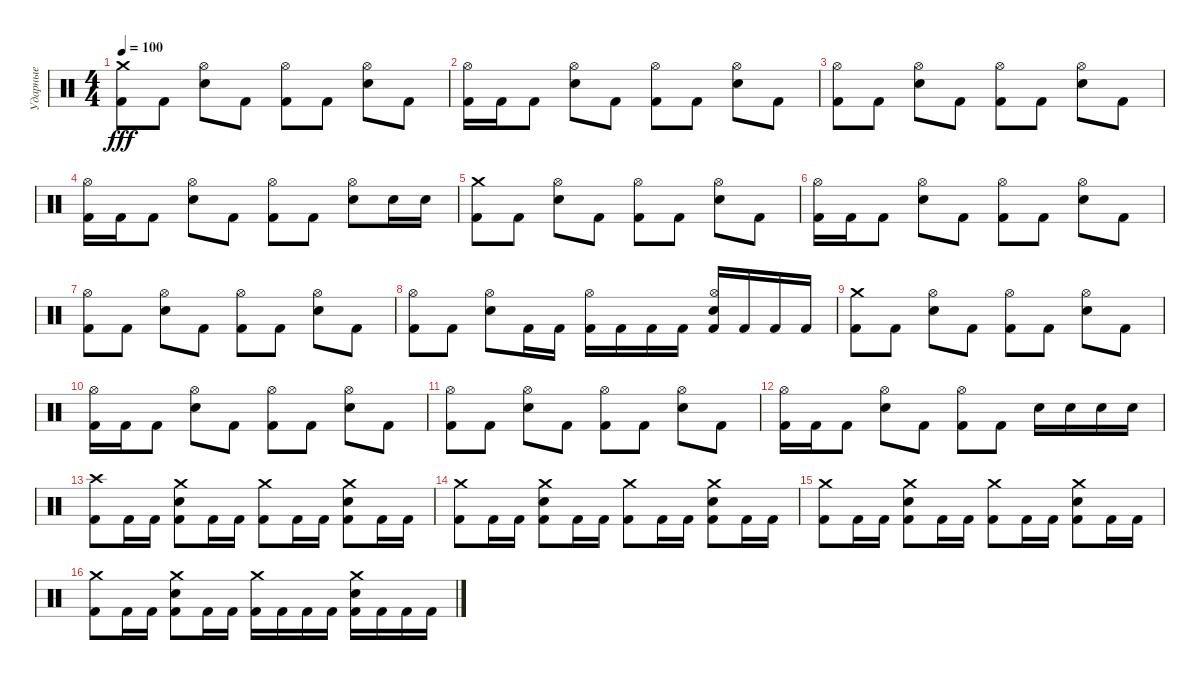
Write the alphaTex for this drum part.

\track ("Ударные" "Ударные") {instrument percussion}
\staff {score}
\articulation defaults
\ts (4 4)
\tempo 100
\clef neutral
\ks c
("Crash medium (hit)" "Kick (hit) 2").8{dy fff} "Kick (hit) 2".8 ("Hi-Hat (open)" "Electric Snare (hit)").8 "Kick (hit) 2".8 ("Hi-Hat (open)" "Kick (hit) 2").8 "Kick (hit) 2".8 ("Hi-Hat (open)" "Electric Snare (hit)").8 "Kick (hit) 2".8 |
("Hi-Hat (open)" "Kick (hit) 2").16 "Kick (hit) 2".16 "Kick (hit) 2".8 ("Hi-Hat (open)" "Electric Snare (hit)").8 "Kick (hit) 2".8 ("Hi-Hat (open)" "Kick (hit) 2").8 "Kick (hit) 2".8 ("Hi-Hat (open)" "Electric Snare (hit)").8 "Kick (hit) 2".8 |
("Hi-Hat (open)" "Kick (hit) 2").8 "Kick (hit) 2".8 ("Hi-Hat (open)" "Electric Snare (hit)").8 "Kick (hit) 2".8 ("Hi-Hat (open)" "Kick (hit) 2").8 "Kick (hit) 2".8 ("Hi-Hat (open)" "Electric Snare (hit)").8 "Kick (hit) 2".8 |
("Hi-Hat (open)" "Kick (hit) 2").16 "Kick (hit) 2".16 "Kick (hit) 2".8 ("Hi-Hat (open)" "Electric Snare (hit)").8 "Kick (hit) 2".8 ("Hi-Hat (open)" "Kick (hit) 2").8 "Kick (hit) 2".8 ("Hi-Hat (open)" "Electric Snare (hit)").8 "Electric Snare (hit)".16 "Electric Snare (hit)".16 |
("Crash medium (hit)" "Kick (hit) 2").8 "Kick (hit) 2".8 ("Hi-Hat (open)" "Electric Snare (hit)").8 "Kick (hit) 2".8 ("Hi-Hat (open)" "Kick (hit) 2").8 "Kick (hit) 2".8 ("Hi-Hat (open)" "Electric Snare (hit)").8 "Kick (hit) 2".8 |
("Hi-Hat (open)" "Kick (hit) 2").16 "Kick (hit) 2".16 "Kick (hit) 2".8 ("Hi-Hat (open)" "Electric Snare (hit)").8 "Kick (hit) 2".8 ("Hi-Hat (open)" "Kick (hit) 2").8 "Kick (hit) 2".8 ("Hi-Hat (open)" "Electric Snare (hit)").8 "Kick (hit) 2".8 |
("Hi-Hat (open)" "Kick (hit) 2").8 "Kick (hit) 2".8 ("Hi-Hat (open)" "Electric Snare (hit)").8 "Kick (hit) 2".8 ("Hi-Hat (open)" "Kick (hit) 2").8 "Kick (hit) 2".8 ("Hi-Hat (open)" "Electric Snare (hit)").8 "Kick (hit) 2".8 |
("Hi-Hat (open)" "Kick (hit) 2").8 "Kick (hit) 2".8 ("Hi-Hat (open)" "Electric Snare (hit)").8 "Kick (hit) 2".16 "Kick (hit) 2".16 ("Hi-Hat (open)" "Kick (hit) 2").16 "Kick (hit) 2".16 "Kick (hit) 2".16 "Kick (hit) 2".16 ("Hi-Hat (open)" "Electric Snare (hit)" "Kick (hit) 2").16 "Kick (hit) 2".16 "Kick (hit) 2".16 "Kick (hit) 2".16 |
("Crash medium (hit)" "Kick (hit) 2").8 "Kick (hit) 2".8 ("Hi-Hat (open)" "Electric Snare (hit)").8 "Kick (hit) 2".8 ("Hi-Hat (open)" "Kick (hit) 2").8 "Kick (hit) 2".8 ("Hi-Hat (open)" "Electric Snare (hit)").8 "Kick (hit) 2".8 |
("Hi-Hat (open)" "Kick (hit) 2").16 "Kick (hit) 2".16 "Kick (hit) 2".8 ("Hi-Hat (open)" "Electric Snare (hit)").8 "Kick (hit) 2".8 ("Hi-Hat (open)" "Kick (hit) 2").8 "Kick (hit) 2".8 ("Hi-Hat (open)" "Electric Snare (hit)").8 "Kick (hit) 2".8 |
("Hi-Hat (open)" "Kick (hit) 2").8 "Kick (hit) 2".8 ("Hi-Hat (open)" "Electric Snare (hit)").8 "Kick (hit) 2".8 ("Hi-Hat (open)" "Kick (hit) 2").8 "Kick (hit) 2".8 ("Hi-Hat (open)" "Electric Snare (hit)").8 "Kick (hit) 2".8 |
("Hi-Hat (open)" "Kick (hit) 2").16 "Kick (hit) 2".16 "Kick (hit) 2".8 ("Hi-Hat (open)" "Electric Snare (hit)").8 "Kick (hit) 2".8 ("Hi-Hat (open)" "Kick (hit) 2").8 "Kick (hit) 2".8 "Electric Snare (hit)".16 "Electric Snare (hit)".16 "Electric Snare (hit)".16 "Electric Snare (hit)".16 |
("Crash high (hit)" "Kick (hit) 2").8 "Kick (hit) 2".16 "Kick (hit) 2".16 ("Crash medium (hit)" "Electric Snare (hit)" "Kick (hit) 2").8 "Kick (hit) 2".16 "Kick (hit) 2".16 ("Crash medium (hit)" "Kick (hit) 2").8 "Kick (hit) 2".16 "Kick (hit) 2".16 ("Crash medium (hit)" "Electric Snare (hit)" "Kick (hit) 2").8 "Kick (hit) 2".16 "Kick (hit) 2".16 |
("Crash medium (hit)" "Kick (hit) 2").8 "Kick (hit) 2".16 "Kick (hit) 2".16 ("Crash medium (hit)" "Electric Snare (hit)" "Kick (hit) 2").8 "Kick (hit) 2".16 "Kick (hit) 2".16 ("Crash medium (hit)" "Kick (hit) 2").8 "Kick (hit) 2".16 "Kick (hit) 2".16 ("Crash medium (hit)" "Electric Snare (hit)" "Kick (hit) 2").8 "Kick (hit) 2".16 "Kick (hit) 2".16 |
("Crash medium (hit)" "Kick (hit) 2").8 "Kick (hit) 2".16 "Kick (hit) 2".16 ("Crash medium (hit)" "Electric Snare (hit)" "Kick (hit) 2").8 "Kick (hit) 2".16 "Kick (hit) 2".16 ("Crash medium (hit)" "Kick (hit) 2").8 "Kick (hit) 2".16 "Kick (hit) 2".16 ("Crash medium (hit)" "Electric Snare (hit)" "Kick (hit) 2").8 "Kick (hit) 2".16 "Kick (hit) 2".16 |
("Crash medium (hit)" "Kick (hit) 2").8 "Kick (hit) 2".16 "Kick (hit) 2".16 ("Crash medium (hit)" "Electric Snare (hit)" "Kick (hit) 2").8 "Kick (hit) 2".16 "Kick (hit) 2".16 ("Crash medium (hit)" "Kick (hit) 2").16 "Kick (hit) 2".16 "Kick (hit) 2".16 "Kick (hit) 2".16 ("Crash medium (hit)" "Electric Snare (hit)" "Kick (hit) 2").16 "Kick (hit) 2".16 "Kick (hit) 2".16 "Kick (hit) 2".16
